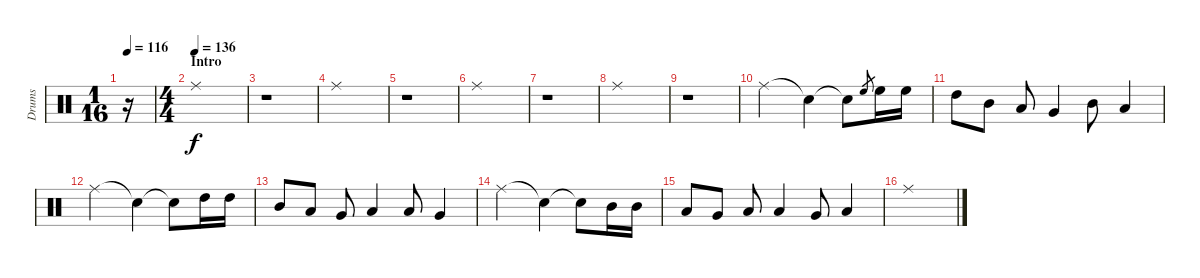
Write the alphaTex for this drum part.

\track ("Drums" "Drums") {instrument percussion}
\staff {score}
\articulation defaults
\ts (1 16)
\tempo 116
\clef neutral
\ks c
r.16{dy f} |
\ts (4 4)
\section ("" "Intro")
\tempo (136)
"Ride (middle)".1 |
r.1 |
"Ride (middle)".1 |
r.1 |
"Ride (middle)".1 |
r.1 |
"Ride (middle)".1 |
r.1 |
"Ride (middle)".2 "Snare (hit)"{t}.4 "Snare (hit)"{t}.8 "High Floor Tom (hit)".8{gr} "High Floor Tom (hit)".16 "High Floor Tom (hit)".16 |
"High Tom (hit)".8 "Mid Tom (hit)".8 "Low Tom (hit)".8 "Very Low Tom (hit)".4 "Mid Tom (hit)".8 "Low Tom (hit)".4 |
"Ride (middle)".2 "Snare (hit)"{t}.4 "Snare (hit)"{t}.8 "High Tom (hit)".16 "High Tom (hit)".16 |
"Mid Tom (hit)".8 "Low Tom (hit)".8 "Very Low Tom (hit)".8 "Low Floor Tom (hit)".4 "Low Tom (hit)".8 "Very Low Tom (hit)".4 |
"Ride (middle)".2 "Snare (hit)"{t}.4 "Snare (hit)"{t}.8 "Mid Tom (hit)".16 "Mid Tom (hit)".16 |
"Low Tom (hit)".8 "Very Low Tom (hit)".8 "Low Floor Tom (hit)".8 "Low Floor Tom (hit)".4 "Very Low Tom (hit)".8 "Low Floor Tom (hit)".4 |
"Ride (middle)".1
